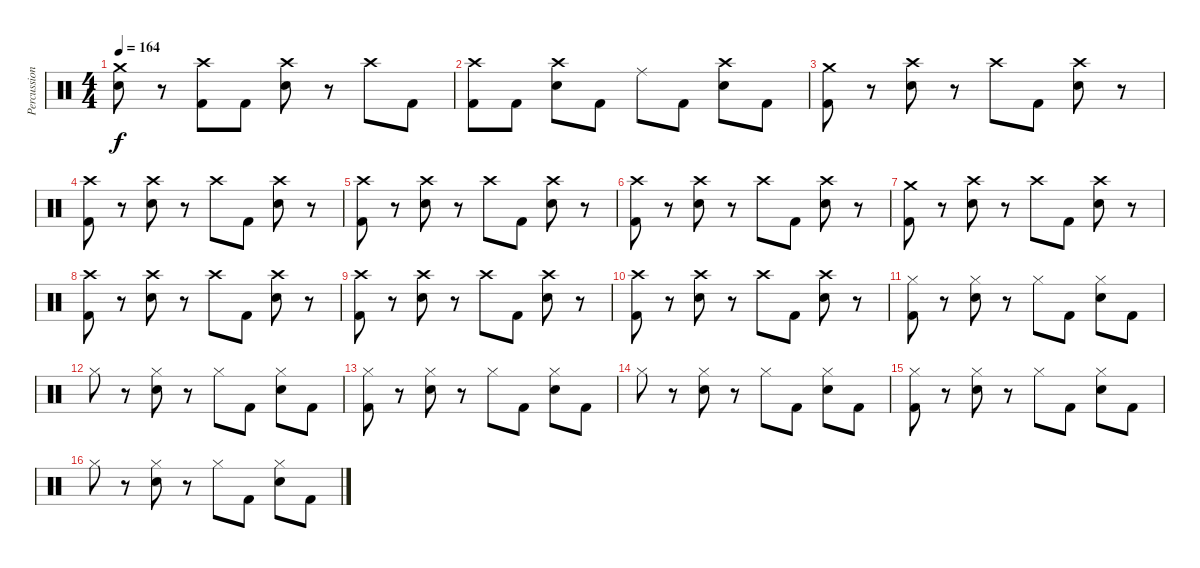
\track ("Percussion" "Percussion") {instrument percussion}
\staff {score}
\articulation defaults
\ts (4 4)
\tempo 164
\clef neutral
\ks c
("Crash medium (hit)" "Electric Snare (hit)").8{dy f} r.8 ("Crash high (hit)" "Kick (hit) 2").8 "Kick (hit) 2".8 ("Crash high (hit)" "Electric Snare (hit)").8 r.8 "Crash high (hit)".8 "Kick (hit) 2".8 |
("Crash high (hit)" "Kick (hit) 2").8 "Kick (hit) 2".8 ("Crash high (hit)" "Electric Snare (hit)").8 "Kick (hit) 2".8 "Ride (middle)".8 "Kick (hit) 2".8 ("Crash high (hit)" "Electric Snare (hit)").8 "Kick (hit) 2".8 |
("Crash medium (hit)" "Kick (hit) 2").8 r.8 ("Crash high (hit)" "Electric Snare (hit)").8 r.8 "Crash high (hit)".8 "Kick (hit) 2".8 ("Crash high (hit)" "Electric Snare (hit)").8 r.8 |
("Crash high (hit)" "Kick (hit) 2").8 r.8 ("Crash high (hit)" "Electric Snare (hit)").8 r.8 "Crash high (hit)".8 "Kick (hit) 2".8 ("Crash high (hit)" "Electric Snare (hit)").8 r.8 |
("Crash high (hit)" "Kick (hit) 2").8 r.8 ("Crash high (hit)" "Electric Snare (hit)").8 r.8 "Crash high (hit)".8 "Kick (hit) 2".8 ("Crash high (hit)" "Electric Snare (hit)").8 r.8 |
("Crash high (hit)" "Kick (hit) 2").8 r.8 ("Crash high (hit)" "Electric Snare (hit)").8 r.8 "Crash high (hit)".8 "Kick (hit) 2".8 ("Crash high (hit)" "Electric Snare (hit)").8 r.8 |
("Crash medium (hit)" "Kick (hit) 2").8 r.8 ("Crash high (hit)" "Electric Snare (hit)").8 r.8 "Crash high (hit)".8 "Kick (hit) 2".8 ("Crash high (hit)" "Electric Snare (hit)").8 r.8 |
("Crash high (hit)" "Kick (hit) 2").8 r.8 ("Crash high (hit)" "Electric Snare (hit)").8 r.8 "Crash high (hit)".8 "Kick (hit) 2".8 ("Crash high (hit)" "Electric Snare (hit)").8 r.8 |
("Crash high (hit)" "Kick (hit) 2").8 r.8 ("Crash high (hit)" "Electric Snare (hit)").8 r.8 "Crash high (hit)".8 "Kick (hit) 2".8 ("Crash high (hit)" "Electric Snare (hit)").8 r.8 |
("Crash high (hit)" "Kick (hit) 2").8 r.8 ("Crash high (hit)" "Electric Snare (hit)").8 r.8 "Crash high (hit)".8 "Kick (hit) 2".8 ("Crash high (hit)" "Electric Snare (hit)").8 r.8 |
("Hi-Hat (closed)" "Kick (hit) 2").8 r.8 ("Hi-Hat (closed)" "Electric Snare (hit)").8 r.8 "Hi-Hat (closed)".8 "Kick (hit) 2".8 ("Hi-Hat (closed)" "Electric Snare (hit)").8 "Kick (hit) 2".8 |
"Hi-Hat (closed)".8 r.8 ("Hi-Hat (closed)" "Electric Snare (hit)").8 r.8 "Hi-Hat (closed)".8 "Kick (hit) 2".8 ("Hi-Hat (closed)" "Electric Snare (hit)").8 "Kick (hit) 2".8 |
("Hi-Hat (closed)" "Kick (hit) 2").8 r.8 ("Hi-Hat (closed)" "Electric Snare (hit)").8 r.8 "Hi-Hat (closed)".8 "Kick (hit) 2".8 ("Hi-Hat (closed)" "Electric Snare (hit)").8 "Kick (hit) 2".8 |
"Hi-Hat (closed)".8 r.8 ("Hi-Hat (closed)" "Electric Snare (hit)").8 r.8 "Hi-Hat (closed)".8 "Kick (hit) 2".8 ("Hi-Hat (closed)" "Electric Snare (hit)").8 "Kick (hit) 2".8 |
("Hi-Hat (closed)" "Kick (hit) 2").8 r.8 ("Hi-Hat (closed)" "Electric Snare (hit)").8 r.8 "Hi-Hat (closed)".8 "Kick (hit) 2".8 ("Hi-Hat (closed)" "Electric Snare (hit)").8 "Kick (hit) 2".8 |
"Hi-Hat (closed)".8 r.8 ("Hi-Hat (closed)" "Electric Snare (hit)").8 r.8 "Hi-Hat (closed)".8 "Kick (hit) 2".8 ("Hi-Hat (closed)" "Electric Snare (hit)").8 "Kick (hit) 2".8
